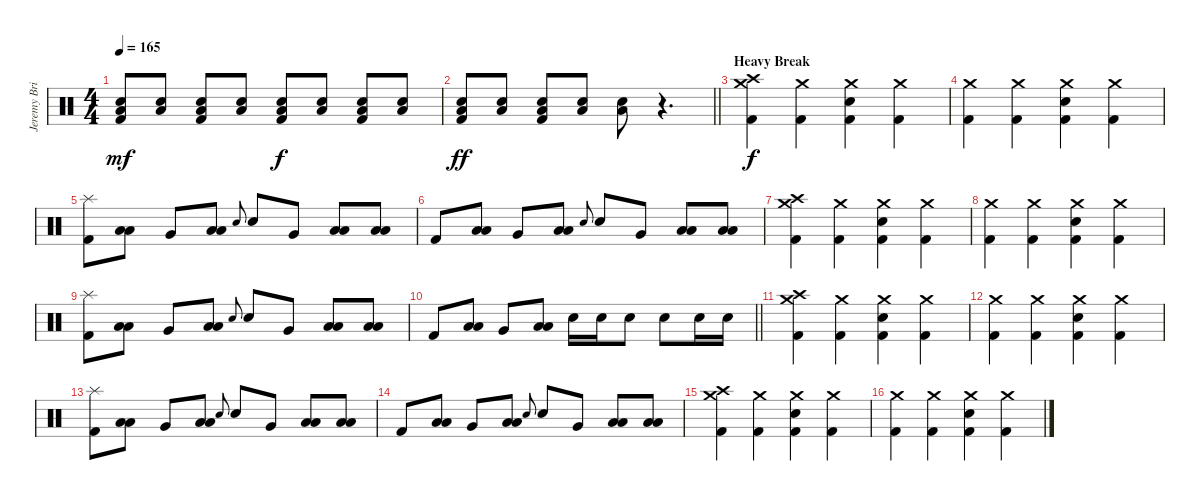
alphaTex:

\track ("Jeremy Brian [Drums]" "Jeremy Bri") {instrument percussion}
\staff {score}
\articulation defaults
\ts (4 4)
\tempo 165
\clef neutral
\ks c
("Low Floor Tom (hit)" "Electric Snare (hit)" "Kick (hit) 2").8{dy mf} ("Low Floor Tom (hit)" "Electric Snare (hit)").8 ("Low Floor Tom (hit)" "Electric Snare (hit)" "Kick (hit) 2").8 ("Low Floor Tom (hit)" "Electric Snare (hit)").8 ("Low Floor Tom (hit)" "Electric Snare (hit)" "Kick (hit) 2").8{dy f} ("Low Floor Tom (hit)" "Electric Snare (hit)").8 ("Low Floor Tom (hit)" "Electric Snare (hit)" "Kick (hit) 2").8 ("Low Floor Tom (hit)" "Electric Snare (hit)").8 |
\barLineRight lightlight
("Low Floor Tom (hit)" "Electric Snare (hit)" "Kick (hit) 2").8{dy ff} ("Low Floor Tom (hit)" "Electric Snare (hit)").8 ("Low Floor Tom (hit)" "Electric Snare (hit)" "Kick (hit) 2").8 ("Low Floor Tom (hit)" "Electric Snare (hit)").8 ("Low Floor Tom (hit)" "Electric Snare (hit)").8 r.4{d} |
\section ("" "Heavy Break")
("Crash high (hit)" "Crash medium (hit)" "Kick (hit) 2").4{dy f} ("Crash medium (hit)" "Kick (hit) 2").4 ("Crash medium (hit)" "Electric Snare (hit)" "Kick (hit) 2").4 ("Crash medium (hit)" "Kick (hit) 2").4 |
("Crash medium (hit)" "Kick (hit) 2").4 ("Crash medium (hit)" "Kick (hit) 2").4 ("Crash medium (hit)" "Electric Snare (hit)" "Kick (hit) 2").4 ("Crash medium (hit)" "Kick (hit) 2").4 |
("Splash (hit)" "Kick (hit) 2").8 ("Low Floor Tom (hit)" "Low Tom (hit)").8 "Very Low Tom (hit)".8 ("Low Floor Tom (hit)" "Low Tom (hit)").8 "Electric Snare (hit)".8{gr onbeat} "Electric Snare (hit)".8 "Very Low Tom (hit)".8 ("Low Floor Tom (hit)" "Low Tom (hit)").8 ("Low Floor Tom (hit)" "Low Tom (hit)").8 |
"Kick (hit) 2".8 ("Low Floor Tom (hit)" "Low Tom (hit)").8 "Very Low Tom (hit)".8 ("Low Floor Tom (hit)" "Low Tom (hit)").8 "Electric Snare (hit)".8{gr onbeat} "Electric Snare (hit)".8 "Very Low Tom (hit)".8 ("Low Floor Tom (hit)" "Low Tom (hit)").8 ("Low Floor Tom (hit)" "Low Tom (hit)").8 |
("Crash high (hit)" "Crash medium (hit)" "Kick (hit) 2").4 ("Crash medium (hit)" "Kick (hit) 2").4 ("Crash medium (hit)" "Electric Snare (hit)" "Kick (hit) 2").4 ("Crash medium (hit)" "Kick (hit) 2").4 |
("Crash medium (hit)" "Kick (hit) 2").4 ("Crash medium (hit)" "Kick (hit) 2").4 ("Crash medium (hit)" "Electric Snare (hit)" "Kick (hit) 2").4 ("Crash medium (hit)" "Kick (hit) 2").4 |
("Splash (hit)" "Kick (hit) 2").8 ("Low Floor Tom (hit)" "Low Tom (hit)").8 "Very Low Tom (hit)".8 ("Low Floor Tom (hit)" "Low Tom (hit)").8 "Electric Snare (hit)".8{gr onbeat} "Electric Snare (hit)".8 "Very Low Tom (hit)".8 ("Low Floor Tom (hit)" "Low Tom (hit)").8 ("Low Floor Tom (hit)" "Low Tom (hit)").8 |
\barLineRight lightlight "Kick (hit) 2".8
("Low Floor Tom (hit)" "Low Tom (hit)").8 "Very Low Tom (hit)".8 ("Low Floor Tom (hit)" "Low Tom (hit)").8 "Electric Snare (hit)".16 "Electric Snare (hit)".16 "Electric Snare (hit)".8 "Electric Snare (hit)".8 "Electric Snare (hit)".16 "Electric Snare (hit)".16 |
("Crash high (hit)" "Crash medium (hit)" "Kick (hit) 2").4 ("Crash medium (hit)" "Kick (hit) 2").4 ("Crash medium (hit)" "Electric Snare (hit)" "Kick (hit) 2").4 ("Crash medium (hit)" "Kick (hit) 2").4 |
("Crash medium (hit)" "Kick (hit) 2").4 ("Crash medium (hit)" "Kick (hit) 2").4 ("Crash medium (hit)" "Electric Snare (hit)" "Kick (hit) 2").4 ("Crash medium (hit)" "Kick (hit) 2").4 |
("Splash (hit)" "Kick (hit) 2").8 ("Low Floor Tom (hit)" "Low Tom (hit)").8 "Very Low Tom (hit)".8 ("Low Floor Tom (hit)" "Low Tom (hit)").8 "Electric Snare (hit)".8{gr onbeat} "Electric Snare (hit)".8 "Very Low Tom (hit)".8 ("Low Floor Tom (hit)" "Low Tom (hit)").8 ("Low Floor Tom (hit)" "Low Tom (hit)").8 |
"Kick (hit) 2".8 ("Low Floor Tom (hit)" "Low Tom (hit)").8 "Very Low Tom (hit)".8 ("Low Floor Tom (hit)" "Low Tom (hit)").8 "Electric Snare (hit)".8{gr onbeat} "Electric Snare (hit)".8 "Very Low Tom (hit)".8 ("Low Floor Tom (hit)" "Low Tom (hit)").8 ("Low Floor Tom (hit)" "Low Tom (hit)").8 |
("Crash high (hit)" "Crash medium (hit)" "Kick (hit) 2").4 ("Crash medium (hit)" "Kick (hit) 2").4 ("Crash medium (hit)" "Electric Snare (hit)" "Kick (hit) 2").4 ("Crash medium (hit)" "Kick (hit) 2").4 |
("Crash medium (hit)" "Kick (hit) 2").4 ("Crash medium (hit)" "Kick (hit) 2").4 ("Crash medium (hit)" "Electric Snare (hit)" "Kick (hit) 2").4 ("Crash medium (hit)" "Kick (hit) 2").4
